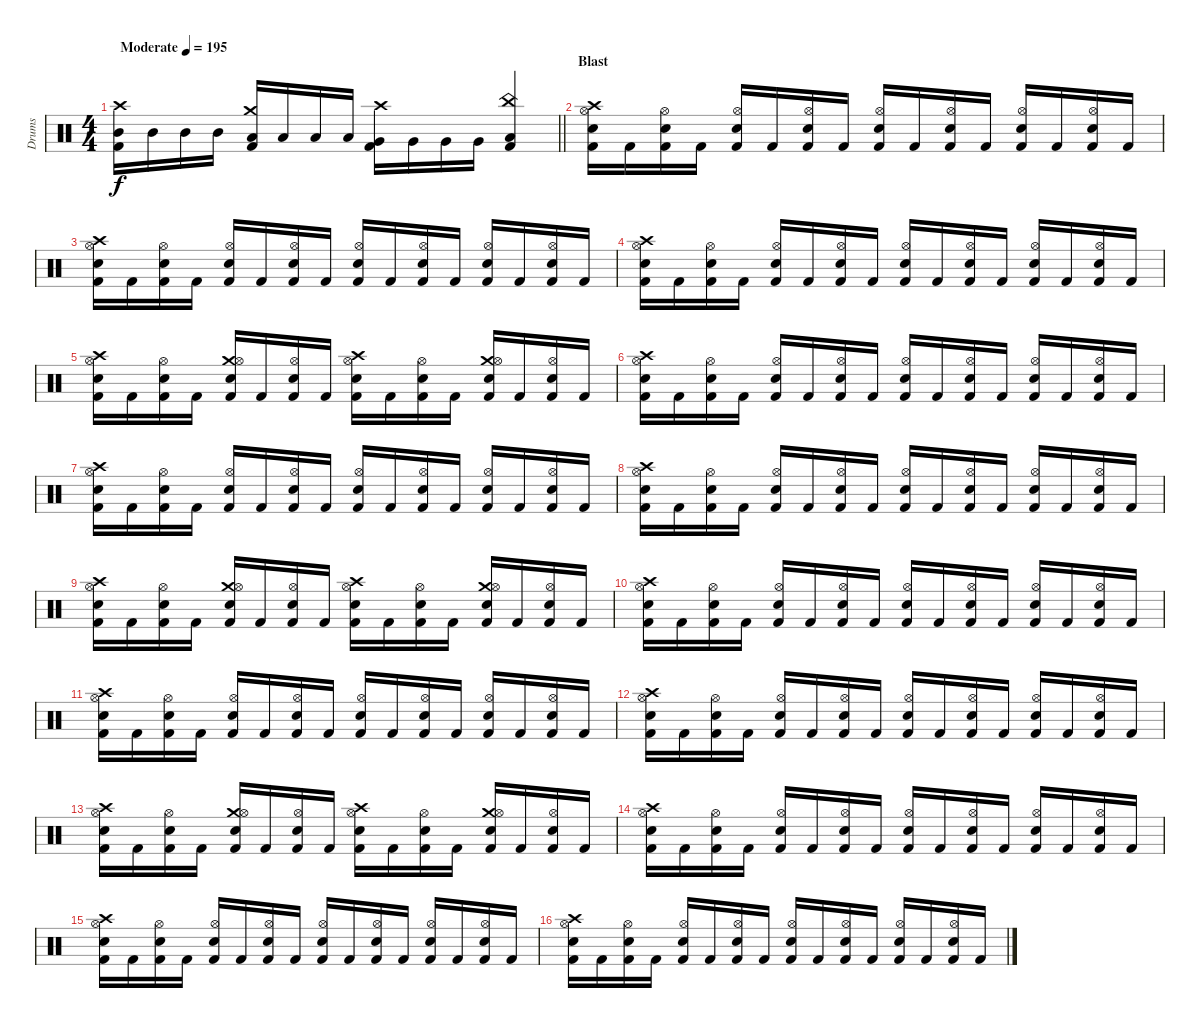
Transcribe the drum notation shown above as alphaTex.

\track ("Drums" "Drums") {instrument percussion}
\staff {score}
\articulation defaults
\ts (4 4)
\tempo (195 "Moderate")
\clef neutral
\barLineRight lightlight
\ks c
("Crash high (hit)" "Mid Tom (hit)" "Kick (hit) 2").16{dy f} "Mid Tom (hit)".16 "Mid Tom (hit)".16 "Mid Tom (hit)".16 ("Crash medium (hit)" "Low Tom (hit)" "Kick (hit) 2").16 "Low Tom (hit)".16 "Low Tom (hit)".16 "Low Tom (hit)".16 ("Crash high (hit)" "Very Low Tom (hit)" "Kick (hit) 2").16 "Very Low Tom (hit)".16 "Very Low Tom (hit)".16 "Very Low Tom (hit)".16 ("China (hit)" "Low Floor Tom (hit)" "Kick (hit) 2").4 |
\section ("" "Blast")
("Crash high (hit)" "Hi-Hat (open)" "Snare (hit) 2" "Kick (hit) 2").16 "Kick (hit) 2".16 ("Hi-Hat (open)" "Snare (hit) 2" "Kick (hit) 2").16 "Kick (hit) 2".16 ("Hi-Hat (open)" "Snare (hit) 2" "Kick (hit) 2").16 "Kick (hit) 2".16 ("Hi-Hat (open)" "Snare (hit) 2" "Kick (hit) 2").16 "Kick (hit) 2".16 ("Hi-Hat (open)" "Snare (hit) 2" "Kick (hit) 2").16 "Kick (hit) 2".16 ("Hi-Hat (open)" "Snare (hit) 2" "Kick (hit) 2").16 "Kick (hit) 2".16 ("Hi-Hat (open)" "Snare (hit) 2" "Kick (hit) 2").16 "Kick (hit) 2".16 ("Hi-Hat (open)" "Snare (hit) 2" "Kick (hit) 2").16 "Kick (hit) 2".16 |
("Crash high (hit)" "Hi-Hat (open)" "Snare (hit) 2" "Kick (hit) 2").16 "Kick (hit) 2".16 ("Hi-Hat (open)" "Snare (hit) 2" "Kick (hit) 2").16 "Kick (hit) 2".16 ("Hi-Hat (open)" "Snare (hit) 2" "Kick (hit) 2").16 "Kick (hit) 2".16 ("Hi-Hat (open)" "Snare (hit) 2" "Kick (hit) 2").16 "Kick (hit) 2".16 ("Hi-Hat (open)" "Snare (hit) 2" "Kick (hit) 2").16 "Kick (hit) 2".16 ("Hi-Hat (open)" "Snare (hit) 2" "Kick (hit) 2").16 "Kick (hit) 2".16 ("Hi-Hat (open)" "Snare (hit) 2" "Kick (hit) 2").16 "Kick (hit) 2".16 ("Hi-Hat (open)" "Snare (hit) 2" "Kick (hit) 2").16 "Kick (hit) 2".16 |
("Crash high (hit)" "Hi-Hat (open)" "Snare (hit) 2" "Kick (hit) 2").16 "Kick (hit) 2".16 ("Hi-Hat (open)" "Snare (hit) 2" "Kick (hit) 2").16 "Kick (hit) 2".16 ("Hi-Hat (open)" "Snare (hit) 2" "Kick (hit) 2").16 "Kick (hit) 2".16 ("Hi-Hat (open)" "Snare (hit) 2" "Kick (hit) 2").16 "Kick (hit) 2".16 ("Hi-Hat (open)" "Snare (hit) 2" "Kick (hit) 2").16 "Kick (hit) 2".16 ("Hi-Hat (open)" "Snare (hit) 2" "Kick (hit) 2").16 "Kick (hit) 2".16 ("Hi-Hat (open)" "Snare (hit) 2" "Kick (hit) 2").16 "Kick (hit) 2".16 ("Hi-Hat (open)" "Snare (hit) 2" "Kick (hit) 2").16 "Kick (hit) 2".16 |
("Crash high (hit)" "Hi-Hat (open)" "Snare (hit) 2" "Kick (hit) 2").16 "Kick (hit) 2".16 ("Hi-Hat (open)" "Snare (hit) 2" "Kick (hit) 2").16 "Kick (hit) 2".16 ("Crash medium (hit)" "Hi-Hat (open)" "Snare (hit) 2" "Kick (hit) 2").16 "Kick (hit) 2".16 ("Hi-Hat (open)" "Snare (hit) 2" "Kick (hit) 2").16 "Kick (hit) 2".16 ("Crash high (hit)" "Hi-Hat (open)" "Snare (hit) 2" "Kick (hit) 2").16 "Kick (hit) 2".16 ("Hi-Hat (open)" "Snare (hit) 2" "Kick (hit) 2").16 "Kick (hit) 2".16 ("Crash medium (hit)" "Hi-Hat (open)" "Snare (hit) 2" "Kick (hit) 2").16 "Kick (hit) 2".16 ("Hi-Hat (open)" "Snare (hit) 2" "Kick (hit) 2").16 "Kick (hit) 2".16 |
("Crash high (hit)" "Hi-Hat (open)" "Snare (hit) 2" "Kick (hit) 2").16 "Kick (hit) 2".16 ("Hi-Hat (open)" "Snare (hit) 2" "Kick (hit) 2").16 "Kick (hit) 2".16 ("Hi-Hat (open)" "Snare (hit) 2" "Kick (hit) 2").16 "Kick (hit) 2".16 ("Hi-Hat (open)" "Snare (hit) 2" "Kick (hit) 2").16 "Kick (hit) 2".16 ("Hi-Hat (open)" "Snare (hit) 2" "Kick (hit) 2").16 "Kick (hit) 2".16 ("Hi-Hat (open)" "Snare (hit) 2" "Kick (hit) 2").16 "Kick (hit) 2".16 ("Hi-Hat (open)" "Snare (hit) 2" "Kick (hit) 2").16 "Kick (hit) 2".16 ("Hi-Hat (open)" "Snare (hit) 2" "Kick (hit) 2").16 "Kick (hit) 2".16 |
("Crash high (hit)" "Hi-Hat (open)" "Snare (hit) 2" "Kick (hit) 2").16 "Kick (hit) 2".16 ("Hi-Hat (open)" "Snare (hit) 2" "Kick (hit) 2").16 "Kick (hit) 2".16 ("Hi-Hat (open)" "Snare (hit) 2" "Kick (hit) 2").16 "Kick (hit) 2".16 ("Hi-Hat (open)" "Snare (hit) 2" "Kick (hit) 2").16 "Kick (hit) 2".16 ("Hi-Hat (open)" "Snare (hit) 2" "Kick (hit) 2").16 "Kick (hit) 2".16 ("Hi-Hat (open)" "Snare (hit) 2" "Kick (hit) 2").16 "Kick (hit) 2".16 ("Hi-Hat (open)" "Snare (hit) 2" "Kick (hit) 2").16 "Kick (hit) 2".16 ("Hi-Hat (open)" "Snare (hit) 2" "Kick (hit) 2").16 "Kick (hit) 2".16 |
("Crash high (hit)" "Hi-Hat (open)" "Snare (hit) 2" "Kick (hit) 2").16 "Kick (hit) 2".16 ("Hi-Hat (open)" "Snare (hit) 2" "Kick (hit) 2").16 "Kick (hit) 2".16 ("Hi-Hat (open)" "Snare (hit) 2" "Kick (hit) 2").16 "Kick (hit) 2".16 ("Hi-Hat (open)" "Snare (hit) 2" "Kick (hit) 2").16 "Kick (hit) 2".16 ("Hi-Hat (open)" "Snare (hit) 2" "Kick (hit) 2").16 "Kick (hit) 2".16 ("Hi-Hat (open)" "Snare (hit) 2" "Kick (hit) 2").16 "Kick (hit) 2".16 ("Hi-Hat (open)" "Snare (hit) 2" "Kick (hit) 2").16 "Kick (hit) 2".16 ("Hi-Hat (open)" "Snare (hit) 2" "Kick (hit) 2").16 "Kick (hit) 2".16 |
("Crash high (hit)" "Hi-Hat (open)" "Snare (hit) 2" "Kick (hit) 2").16 "Kick (hit) 2".16 ("Hi-Hat (open)" "Snare (hit) 2" "Kick (hit) 2").16 "Kick (hit) 2".16 ("Crash medium (hit)" "Hi-Hat (open)" "Snare (hit) 2" "Kick (hit) 2").16 "Kick (hit) 2".16 ("Hi-Hat (open)" "Snare (hit) 2" "Kick (hit) 2").16 "Kick (hit) 2".16 ("Crash high (hit)" "Hi-Hat (open)" "Snare (hit) 2" "Kick (hit) 2").16 "Kick (hit) 2".16 ("Hi-Hat (open)" "Snare (hit) 2" "Kick (hit) 2").16 "Kick (hit) 2".16 ("Crash medium (hit)" "Hi-Hat (open)" "Snare (hit) 2" "Kick (hit) 2").16 "Kick (hit) 2".16 ("Hi-Hat (open)" "Snare (hit) 2" "Kick (hit) 2").16 "Kick (hit) 2".16 |
("Crash high (hit)" "Hi-Hat (open)" "Snare (hit) 2" "Kick (hit) 2").16 "Kick (hit) 2".16 ("Hi-Hat (open)" "Snare (hit) 2" "Kick (hit) 2").16 "Kick (hit) 2".16 ("Hi-Hat (open)" "Snare (hit) 2" "Kick (hit) 2").16 "Kick (hit) 2".16 ("Hi-Hat (open)" "Snare (hit) 2" "Kick (hit) 2").16 "Kick (hit) 2".16 ("Hi-Hat (open)" "Snare (hit) 2" "Kick (hit) 2").16 "Kick (hit) 2".16 ("Hi-Hat (open)" "Snare (hit) 2" "Kick (hit) 2").16 "Kick (hit) 2".16 ("Hi-Hat (open)" "Snare (hit) 2" "Kick (hit) 2").16 "Kick (hit) 2".16 ("Hi-Hat (open)" "Snare (hit) 2" "Kick (hit) 2").16 "Kick (hit) 2".16 |
("Crash high (hit)" "Hi-Hat (open)" "Snare (hit) 2" "Kick (hit) 2").16 "Kick (hit) 2".16 ("Hi-Hat (open)" "Snare (hit) 2" "Kick (hit) 2").16 "Kick (hit) 2".16 ("Hi-Hat (open)" "Snare (hit) 2" "Kick (hit) 2").16 "Kick (hit) 2".16 ("Hi-Hat (open)" "Snare (hit) 2" "Kick (hit) 2").16 "Kick (hit) 2".16 ("Hi-Hat (open)" "Snare (hit) 2" "Kick (hit) 2").16 "Kick (hit) 2".16 ("Hi-Hat (open)" "Snare (hit) 2" "Kick (hit) 2").16 "Kick (hit) 2".16 ("Hi-Hat (open)" "Snare (hit) 2" "Kick (hit) 2").16 "Kick (hit) 2".16 ("Hi-Hat (open)" "Snare (hit) 2" "Kick (hit) 2").16 "Kick (hit) 2".16 |
("Crash high (hit)" "Hi-Hat (open)" "Snare (hit) 2" "Kick (hit) 2").16 "Kick (hit) 2".16 ("Hi-Hat (open)" "Snare (hit) 2" "Kick (hit) 2").16 "Kick (hit) 2".16 ("Hi-Hat (open)" "Snare (hit) 2" "Kick (hit) 2").16 "Kick (hit) 2".16 ("Hi-Hat (open)" "Snare (hit) 2" "Kick (hit) 2").16 "Kick (hit) 2".16 ("Hi-Hat (open)" "Snare (hit) 2" "Kick (hit) 2").16 "Kick (hit) 2".16 ("Hi-Hat (open)" "Snare (hit) 2" "Kick (hit) 2").16 "Kick (hit) 2".16 ("Hi-Hat (open)" "Snare (hit) 2" "Kick (hit) 2").16 "Kick (hit) 2".16 ("Hi-Hat (open)" "Snare (hit) 2" "Kick (hit) 2").16 "Kick (hit) 2".16 |
("Crash high (hit)" "Hi-Hat (open)" "Snare (hit) 2" "Kick (hit) 2").16 "Kick (hit) 2".16 ("Hi-Hat (open)" "Snare (hit) 2" "Kick (hit) 2").16 "Kick (hit) 2".16 ("Crash medium (hit)" "Hi-Hat (open)" "Snare (hit) 2" "Kick (hit) 2").16 "Kick (hit) 2".16 ("Hi-Hat (open)" "Snare (hit) 2" "Kick (hit) 2").16 "Kick (hit) 2".16 ("Crash high (hit)" "Hi-Hat (open)" "Snare (hit) 2" "Kick (hit) 2").16 "Kick (hit) 2".16 ("Hi-Hat (open)" "Snare (hit) 2" "Kick (hit) 2").16 "Kick (hit) 2".16 ("Crash medium (hit)" "Hi-Hat (open)" "Snare (hit) 2" "Kick (hit) 2").16 "Kick (hit) 2".16 ("Hi-Hat (open)" "Snare (hit) 2" "Kick (hit) 2").16 "Kick (hit) 2".16 |
("Crash high (hit)" "Hi-Hat (open)" "Snare (hit) 2" "Kick (hit) 2").16 "Kick (hit) 2".16 ("Hi-Hat (open)" "Snare (hit) 2" "Kick (hit) 2").16 "Kick (hit) 2".16 ("Hi-Hat (open)" "Snare (hit) 2" "Kick (hit) 2").16 "Kick (hit) 2".16 ("Hi-Hat (open)" "Snare (hit) 2" "Kick (hit) 2").16 "Kick (hit) 2".16 ("Hi-Hat (open)" "Snare (hit) 2" "Kick (hit) 2").16 "Kick (hit) 2".16 ("Hi-Hat (open)" "Snare (hit) 2" "Kick (hit) 2").16 "Kick (hit) 2".16 ("Hi-Hat (open)" "Snare (hit) 2" "Kick (hit) 2").16 "Kick (hit) 2".16 ("Hi-Hat (open)" "Snare (hit) 2" "Kick (hit) 2").16 "Kick (hit) 2".16 |
("Crash high (hit)" "Hi-Hat (open)" "Snare (hit) 2" "Kick (hit) 2").16 "Kick (hit) 2".16 ("Hi-Hat (open)" "Snare (hit) 2" "Kick (hit) 2").16 "Kick (hit) 2".16 ("Hi-Hat (open)" "Snare (hit) 2" "Kick (hit) 2").16 "Kick (hit) 2".16 ("Hi-Hat (open)" "Snare (hit) 2" "Kick (hit) 2").16 "Kick (hit) 2".16 ("Hi-Hat (open)" "Snare (hit) 2" "Kick (hit) 2").16 "Kick (hit) 2".16 ("Hi-Hat (open)" "Snare (hit) 2" "Kick (hit) 2").16 "Kick (hit) 2".16 ("Hi-Hat (open)" "Snare (hit) 2" "Kick (hit) 2").16 "Kick (hit) 2".16 ("Hi-Hat (open)" "Snare (hit) 2" "Kick (hit) 2").16 "Kick (hit) 2".16 |
("Crash high (hit)" "Hi-Hat (open)" "Snare (hit) 2" "Kick (hit) 2").16 "Kick (hit) 2".16 ("Hi-Hat (open)" "Snare (hit) 2" "Kick (hit) 2").16 "Kick (hit) 2".16 ("Hi-Hat (open)" "Snare (hit) 2" "Kick (hit) 2").16 "Kick (hit) 2".16 ("Hi-Hat (open)" "Snare (hit) 2" "Kick (hit) 2").16 "Kick (hit) 2".16 ("Hi-Hat (open)" "Snare (hit) 2" "Kick (hit) 2").16 "Kick (hit) 2".16 ("Hi-Hat (open)" "Snare (hit) 2" "Kick (hit) 2").16 "Kick (hit) 2".16 ("Hi-Hat (open)" "Snare (hit) 2" "Kick (hit) 2").16 "Kick (hit) 2".16 ("Hi-Hat (open)" "Snare (hit) 2" "Kick (hit) 2").16 "Kick (hit) 2".16
